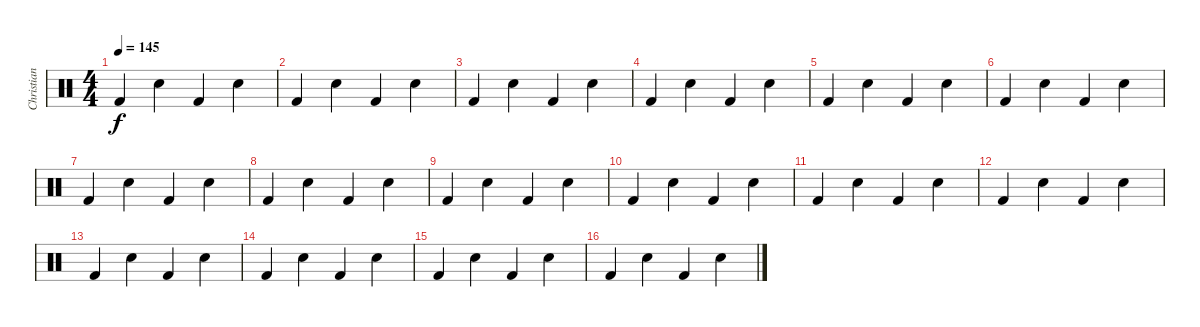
\track ("Christian Paredes" "Christian ") {instrument percussion}
\staff {score}
\articulation defaults
\ts (4 4)
\tempo 145
\clef neutral
\ks c "Kick (hit) 2".4{dy f} "Snare (hit) 2".4 "Kick (hit) 2".4 "Snare (hit) 2".4
|
"Kick (hit) 2".4 "Snare (hit) 2".4 "Kick (hit) 2".4 "Snare (hit) 2".4 |
"Kick (hit) 2".4 "Snare (hit) 2".4 "Kick (hit) 2".4 "Snare (hit) 2".4 |
"Kick (hit) 2".4 "Snare (hit) 2".4 "Kick (hit) 2".4 "Snare (hit) 2".4 |
"Kick (hit) 2".4 "Snare (hit) 2".4 "Kick (hit) 2".4 "Snare (hit) 2".4 |
"Kick (hit) 2".4 "Snare (hit) 2".4 "Kick (hit) 2".4 "Snare (hit) 2".4 |
"Kick (hit) 2".4 "Snare (hit) 2".4 "Kick (hit) 2".4 "Snare (hit) 2".4 |
"Kick (hit) 2".4 "Snare (hit) 2".4 "Kick (hit) 2".4 "Snare (hit) 2".4 |
"Kick (hit) 2".4 "Snare (hit) 2".4 "Kick (hit) 2".4 "Snare (hit) 2".4 |
"Kick (hit) 2".4 "Snare (hit) 2".4 "Kick (hit) 2".4 "Snare (hit) 2".4 |
"Kick (hit) 2".4 "Snare (hit) 2".4 "Kick (hit) 2".4 "Snare (hit) 2".4 |
"Kick (hit) 2".4 "Snare (hit) 2".4 "Kick (hit) 2".4 "Snare (hit) 2".4 |
"Kick (hit) 2".4 "Snare (hit) 2".4 "Kick (hit) 2".4 "Snare (hit) 2".4 |
"Kick (hit) 2".4 "Snare (hit) 2".4 "Kick (hit) 2".4 "Snare (hit) 2".4 |
"Kick (hit) 2".4 "Snare (hit) 2".4 "Kick (hit) 2".4 "Snare (hit) 2".4 |
"Kick (hit) 2".4 "Snare (hit) 2".4 "Kick (hit) 2".4 "Snare (hit) 2".4
